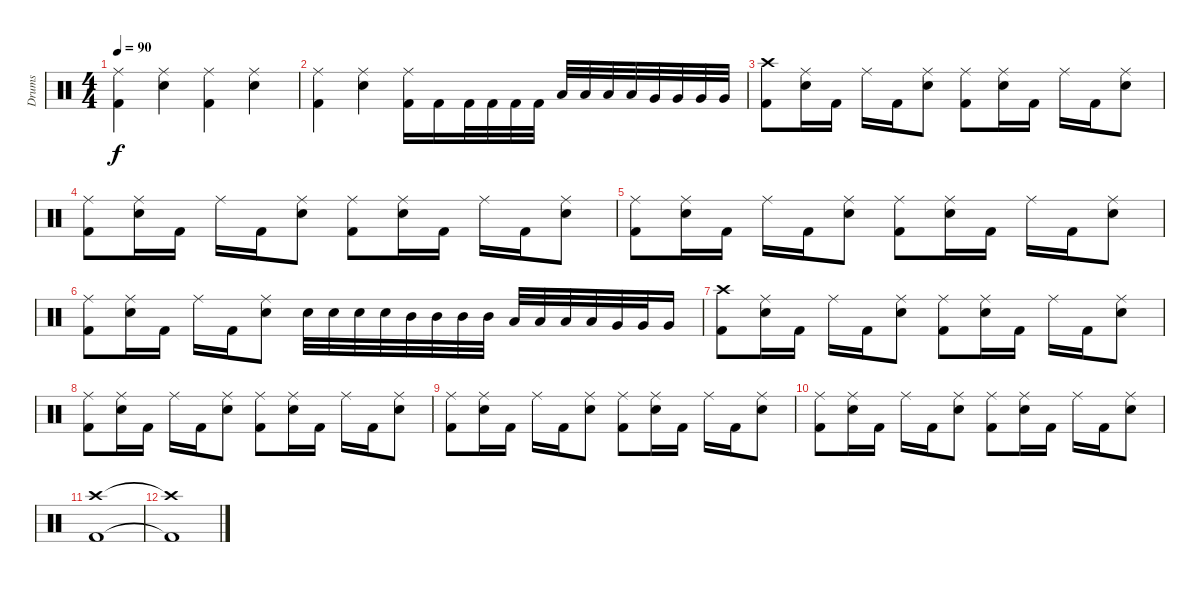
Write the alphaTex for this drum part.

\track ("Drums" "Drums") {instrument percussion}
\staff {score}
\articulation defaults
\ts (4 4)
\tempo 90
\clef neutral
\ks c
("Ride (middle)" "Kick (hit) 2").4{dy f} ("Ride (middle)" "Snare (hit) 2").4 ("Ride (middle)" "Kick (hit) 2").4 ("Ride (middle)" "Snare (hit) 2").4 |
("Ride (middle)" "Kick (hit) 2").4 ("Ride (middle)" "Snare (hit) 2").4 ("Ride (middle)" "Kick (hit) 2").16 "Kick (hit) 2".16 "Kick (hit) 2".32 "Kick (hit) 2".32 "Kick (hit) 2".32 "Kick (hit) 2".32 "Low Tom (hit)".32 "Low Tom (hit)".32 "Low Tom (hit)".32 "Low Tom (hit)".32 "Very Low Tom (hit)".32 "Very Low Tom (hit)".32 "Very Low Tom (hit)".32 "Very Low Tom (hit)".32 |
("Crash high (hit)" "Kick (hit) 2").8 ("Ride (middle)" "Snare (hit) 2").16 "Kick (hit) 2".16 "Ride (middle)".16 "Kick (hit) 2".16 ("Ride (middle)" "Snare (hit) 2").8 ("Ride (middle)" "Kick (hit) 2").8 ("Ride (middle)" "Snare (hit) 2").16 "Kick (hit) 2".16 "Ride (middle)".16 "Kick (hit) 2".16 ("Ride (middle)" "Snare (hit) 2").8 |
("Ride (middle)" "Kick (hit) 2").8 ("Ride (middle)" "Snare (hit) 2").16 "Kick (hit) 2".16 "Ride (middle)".16 "Kick (hit) 2".16 ("Ride (middle)" "Snare (hit) 2").8 ("Ride (middle)" "Kick (hit) 2").8 ("Ride (middle)" "Snare (hit) 2").16 "Kick (hit) 2".16 "Ride (middle)".16 "Kick (hit) 2".16 ("Ride (middle)" "Snare (hit) 2").8 |
("Ride (middle)" "Kick (hit) 2").8 ("Ride (middle)" "Snare (hit) 2").16 "Kick (hit) 2".16 "Ride (middle)".16 "Kick (hit) 2".16 ("Ride (middle)" "Snare (hit) 2").8 ("Ride (middle)" "Kick (hit) 2").8 ("Ride (middle)" "Snare (hit) 2").16 "Kick (hit) 2".16 "Ride (middle)".16 "Kick (hit) 2".16 ("Ride (middle)" "Snare (hit) 2").8 |
("Ride (middle)" "Kick (hit) 2").8 ("Ride (middle)" "Snare (hit) 2").16 "Kick (hit) 2".16 "Ride (middle)".16 "Kick (hit) 2".16 ("Ride (middle)" "Snare (hit) 2").8 "Snare (hit) 2".32 "Snare (hit) 2".32 "Snare (hit) 2".32 "Snare (hit) 2".32 "Mid Tom (hit)".32 "Mid Tom (hit)".32 "Mid Tom (hit)".32 "Mid Tom (hit)".32 "Low Tom (hit)".32 "Low Tom (hit)".32 "Low Tom (hit)".32 "Low Tom (hit)".32 "Very Low Tom (hit)".32 "Very Low Tom (hit)".32 "Very Low Tom (hit)".16 |
("Crash high (hit)" "Kick (hit) 2").8 ("Ride (middle)" "Snare (hit) 2").16 "Kick (hit) 2".16 "Ride (middle)".16 "Kick (hit) 2".16 ("Ride (middle)" "Snare (hit) 2").8 ("Ride (middle)" "Kick (hit) 2").8 ("Ride (middle)" "Snare (hit) 2").16 "Kick (hit) 2".16 "Ride (middle)".16 "Kick (hit) 2".16 ("Ride (middle)" "Snare (hit) 2").8 |
("Ride (middle)" "Kick (hit) 2").8 ("Ride (middle)" "Snare (hit) 2").16 "Kick (hit) 2".16 "Ride (middle)".16 "Kick (hit) 2".16 ("Ride (middle)" "Snare (hit) 2").8 ("Ride (middle)" "Kick (hit) 2").8 ("Ride (middle)" "Snare (hit) 2").16 "Kick (hit) 2".16 "Ride (middle)".16 "Kick (hit) 2".16 ("Ride (middle)" "Snare (hit) 2").8 |
("Ride (middle)" "Kick (hit) 2").8 ("Ride (middle)" "Snare (hit) 2").16 "Kick (hit) 2".16 "Ride (middle)".16 "Kick (hit) 2".16 ("Ride (middle)" "Snare (hit) 2").8 ("Ride (middle)" "Kick (hit) 2").8 ("Ride (middle)" "Snare (hit) 2").16 "Kick (hit) 2".16 "Ride (middle)".16 "Kick (hit) 2".16 ("Ride (middle)" "Snare (hit) 2").8 |
("Ride (middle)" "Kick (hit) 2").8 ("Ride (middle)" "Snare (hit) 2").16 "Kick (hit) 2".16 "Ride (middle)".16 "Kick (hit) 2".16 ("Ride (middle)" "Snare (hit) 2").8 ("Ride (middle)" "Kick (hit) 2").8 ("Ride (middle)" "Snare (hit) 2").16 "Kick (hit) 2".16 "Ride (middle)".16 "Kick (hit) 2".16 ("Ride (middle)" "Snare (hit) 2").8 |
("Crash high (hit)" "Kick (hit) 2").1 |
("Crash high (hit)"{t} "Kick (hit) 2"{t}).1
